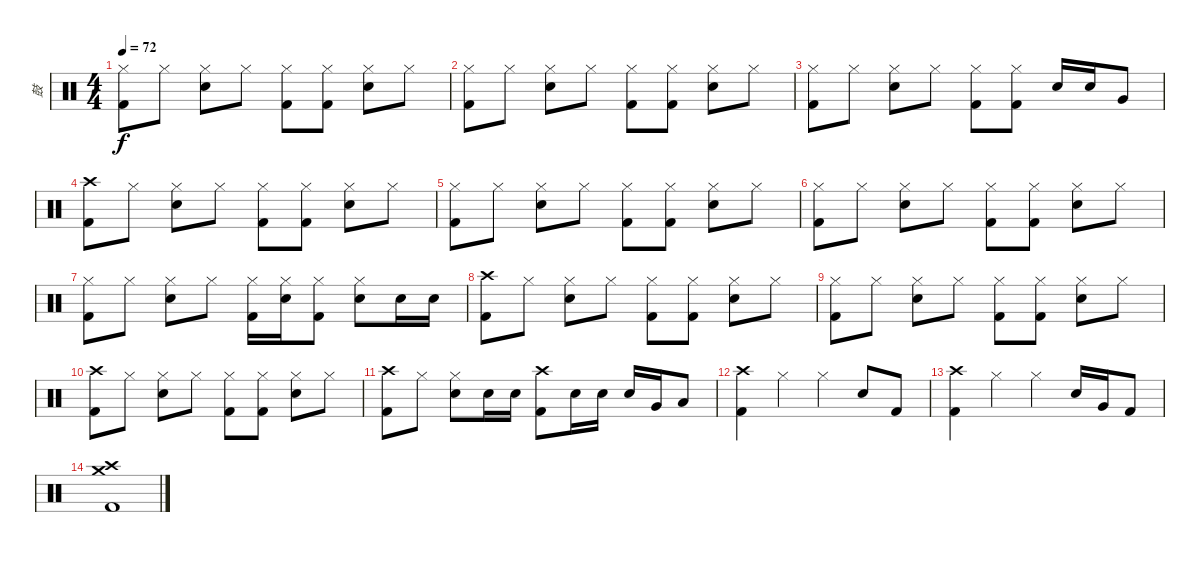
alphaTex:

\track ("鼓" "鼓") {instrument percussion}
\staff {score}
\articulation defaults
\ts (4 4)
\tempo 72
\clef neutral
\ks c
("Hi-Hat (closed)" "Kick (hit) 2").8{dy f} "Hi-Hat (closed)".8 ("Hi-Hat (closed)" "Electric Snare (hit)").8 "Hi-Hat (closed)".8 ("Hi-Hat (closed)" "Kick (hit) 2").8 ("Hi-Hat (closed)" "Kick (hit) 2").8 ("Hi-Hat (closed)" "Electric Snare (hit)").8 "Hi-Hat (closed)".8 |
("Hi-Hat (closed)" "Kick (hit) 2").8 "Hi-Hat (closed)".8 ("Hi-Hat (closed)" "Electric Snare (hit)").8 "Hi-Hat (closed)".8 ("Hi-Hat (closed)" "Kick (hit) 2").8 ("Hi-Hat (closed)" "Kick (hit) 2").8 ("Hi-Hat (closed)" "Electric Snare (hit)").8 "Hi-Hat (closed)".8 |
("Hi-Hat (closed)" "Kick (hit) 2").8 "Hi-Hat (closed)".8 ("Hi-Hat (closed)" "Electric Snare (hit)").8 "Hi-Hat (closed)".8 ("Hi-Hat (closed)" "Kick (hit) 2").8 ("Hi-Hat (closed)" "Kick (hit) 2").8 "Electric Snare (hit)".16 "Electric Snare (hit)".16 "Very Low Tom (hit)".8 |
("Crash high (hit)" "Kick (hit) 2").8 "Hi-Hat (closed)".8 ("Hi-Hat (closed)" "Electric Snare (hit)").8 "Hi-Hat (closed)".8 ("Hi-Hat (closed)" "Kick (hit) 2").8 ("Hi-Hat (closed)" "Kick (hit) 2").8 ("Hi-Hat (closed)" "Electric Snare (hit)").8 "Hi-Hat (closed)".8 |
("Hi-Hat (closed)" "Kick (hit) 2").8 "Hi-Hat (closed)".8 ("Hi-Hat (closed)" "Electric Snare (hit)").8 "Hi-Hat (closed)".8 ("Hi-Hat (closed)" "Kick (hit) 2").8 ("Hi-Hat (closed)" "Kick (hit) 2").8 ("Hi-Hat (closed)" "Electric Snare (hit)").8 "Hi-Hat (closed)".8 |
("Hi-Hat (closed)" "Kick (hit) 2").8 "Hi-Hat (closed)".8 ("Hi-Hat (closed)" "Electric Snare (hit)").8 "Hi-Hat (closed)".8 ("Hi-Hat (closed)" "Kick (hit) 2").8 ("Hi-Hat (closed)" "Kick (hit) 2").8 ("Hi-Hat (closed)" "Electric Snare (hit)").8 "Hi-Hat (closed)".8 |
("Hi-Hat (closed)" "Kick (hit) 2").8 "Hi-Hat (closed)".8 ("Hi-Hat (closed)" "Electric Snare (hit)").8 "Hi-Hat (closed)".8 ("Hi-Hat (closed)" "Kick (hit) 2").16 ("Hi-Hat (closed)" "Electric Snare (hit)").16 ("Hi-Hat (closed)" "Kick (hit) 2").8 ("Hi-Hat (closed)" "Electric Snare (hit)").8 "Electric Snare (hit)".16 "Electric Snare (hit)".16 |
("Crash high (hit)" "Kick (hit) 2").8 "Hi-Hat (closed)".8 ("Hi-Hat (closed)" "Electric Snare (hit)").8 "Hi-Hat (closed)".8 ("Hi-Hat (closed)" "Kick (hit) 2").8 ("Hi-Hat (closed)" "Kick (hit) 2").8 ("Hi-Hat (closed)" "Electric Snare (hit)").8 "Hi-Hat (closed)".8 |
("Hi-Hat (closed)" "Kick (hit) 2").8 "Hi-Hat (closed)".8 ("Hi-Hat (closed)" "Electric Snare (hit)").8 "Hi-Hat (closed)".8 ("Hi-Hat (closed)" "Kick (hit) 2").8 ("Hi-Hat (closed)" "Kick (hit) 2").8 ("Hi-Hat (closed)" "Electric Snare (hit)").8 "Hi-Hat (closed)".8 |
("Crash high (hit)" "Kick (hit) 2").8 "Hi-Hat (closed)".8 ("Hi-Hat (closed)" "Electric Snare (hit)").8 "Hi-Hat (closed)".8 ("Hi-Hat (closed)" "Kick (hit) 2").8 ("Hi-Hat (closed)" "Kick (hit) 2").8 ("Hi-Hat (closed)" "Electric Snare (hit)").8 "Hi-Hat (closed)".8 |
("Crash high (hit)" "Kick (hit) 2").8 "Hi-Hat (closed)".8 ("Hi-Hat (closed)" "Electric Snare (hit)").8 "Electric Snare (hit)".16 "Electric Snare (hit)".16 ("Crash high (hit)" "Kick (hit) 2").8 "Electric Snare (hit)".16 "Electric Snare (hit)".16 "Electric Snare (hit)".16 "Very Low Tom (hit)".16 "Low Floor Tom (hit)".8 |
("Crash high (hit)" "Kick (hit) 2").4 "Hi-Hat (closed)".4 "Hi-Hat (closed)".4 "Electric Snare (hit)".8 "Kick (hit) 2".8 |
("Kick (hit) 2" "Crash high (hit)").4 "Hi-Hat (closed)".4 "Hi-Hat (closed)".4 "Electric Snare (hit)".16 "Very Low Tom (hit)".16 "Kick (hit) 2".8 |
("Crash high (hit)" "Crash medium (hit)" "Kick (hit) 2").1
